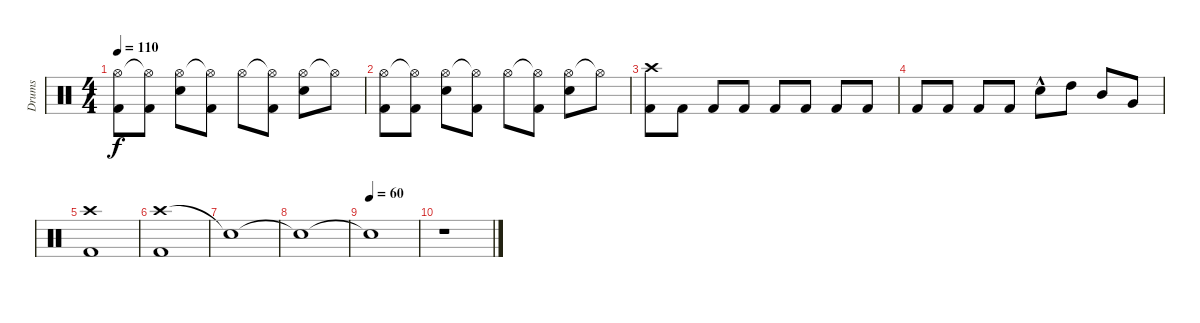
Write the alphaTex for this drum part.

\track ("Drums" "Drums") {instrument percussion}
\staff {score}
\articulation defaults
\ts (4 4)
\tempo 110
\clef neutral
\ks c
("Hi-Hat (open)" "Kick (hit) 2").8{dy f} ("Hi-Hat (open)"{t} "Kick (hit) 2").8 ("Hi-Hat (open)" "Snare (hit) 2").8 ("Hi-Hat (open)"{t} "Kick (hit) 2").8 "Hi-Hat (open)".8 ("Hi-Hat (open)"{t} "Kick (hit) 2").8 ("Hi-Hat (open)" "Snare (hit) 2").8 "Hi-Hat (open)"{t}.8 |
("Hi-Hat (open)" "Kick (hit) 2").8 ("Hi-Hat (open)"{t} "Kick (hit) 2").8 ("Hi-Hat (open)" "Snare (hit) 2").8 ("Hi-Hat (open)"{t} "Kick (hit) 2").8 "Hi-Hat (open)".8 ("Hi-Hat (open)"{t} "Kick (hit) 2").8 ("Hi-Hat (open)" "Snare (hit) 2").8 "Hi-Hat (open)"{t}.8 |
("Crash high (hit)" "Kick (hit) 2").8 "Kick (hit) 2".8 "Kick (hit) 2".8 "Kick (hit) 2".8 "Kick (hit) 2".8 "Kick (hit) 2".8 "Kick (hit) 2".8 "Kick (hit) 2".8 |
"Kick (hit) 2".8 "Kick (hit) 2".8 "Kick (hit) 2".8 "Kick (hit) 2".8 "Snare (hit) 2"{hac}.8 "High Tom (hit)".8 "Mid Tom (hit)".8 "Very Low Tom (hit)".8 |
("Crash high (hit)" "Kick (hit) 2").1 |
("Crash high (hit)" "Kick (hit) 2").1 |
"Snare (hit)"{t}.1 |
"Snare (hit)"{t}.1 |
\tempo (60)
"Snare (hit)"{t}.1 |
r.1
